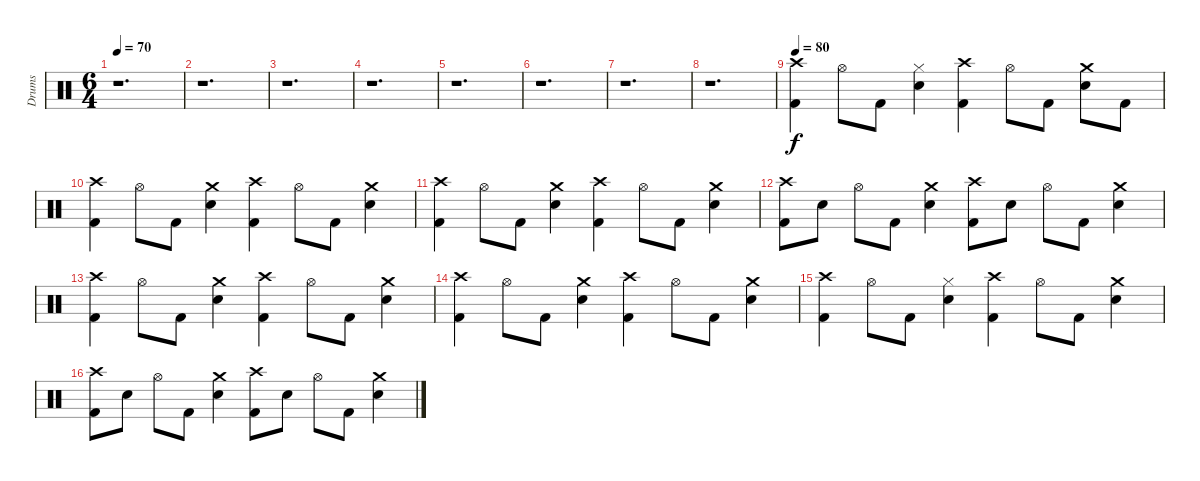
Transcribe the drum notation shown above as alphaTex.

\track ("Drums" "Drums") {instrument percussion}
\staff {score}
\articulation defaults
\ts (6 4)
\tempo 70
\clef neutral
\ks c
r.1{d dy f} |
r.1{d} |
r.1{d} |
r.1{d} |
r.1{d} |
r.1{d} |
r.1{d} |
r.1{d} |
\tempo 80
("Crash high (hit)" "Kick (hit) 2").4 "Hi-Hat (open)".8 "Kick (hit) 2".8 ("Hi-Hat (closed)" "Electric Snare (hit)").4 ("Crash high (hit)" "Kick (hit) 2").4 "Hi-Hat (open)".8 "Kick (hit) 2".8 ("Crash medium (hit)" "Electric Snare (hit)").8 "Kick (hit) 2".8 |
("Crash high (hit)" "Kick (hit) 2").4 "Hi-Hat (open)".8 "Kick (hit) 2".8 ("Crash medium (hit)" "Electric Snare (hit)").4 ("Crash high (hit)" "Kick (hit) 2").4 "Hi-Hat (open)".8 "Kick (hit) 2".8 ("Crash medium (hit)" "Electric Snare (hit)").4 |
("Crash high (hit)" "Kick (hit) 2").4 "Hi-Hat (open)".8 "Kick (hit) 2".8 ("Crash medium (hit)" "Electric Snare (hit)").4 ("Crash high (hit)" "Kick (hit) 2").4 "Hi-Hat (open)".8 "Kick (hit) 2".8 ("Crash medium (hit)" "Electric Snare (hit)").4 |
("Crash high (hit)" "Kick (hit) 2").8 "Electric Snare (hit)".8 "Hi-Hat (open)".8 "Kick (hit) 2".8 ("Crash medium (hit)" "Electric Snare (hit)").4 ("Crash high (hit)" "Kick (hit) 2").8 "Electric Snare (hit)".8 "Hi-Hat (open)".8 "Kick (hit) 2".8 ("Crash medium (hit)" "Electric Snare (hit)").4 |
("Crash high (hit)" "Kick (hit) 2").4 "Hi-Hat (open)".8 "Kick (hit) 2".8 ("Crash medium (hit)" "Electric Snare (hit)").4 ("Crash high (hit)" "Kick (hit) 2").4 "Hi-Hat (open)".8 "Kick (hit) 2".8 ("Crash medium (hit)" "Electric Snare (hit)").4 |
("Crash high (hit)" "Kick (hit) 2").4 "Hi-Hat (open)".8 "Kick (hit) 2".8 ("Crash medium (hit)" "Electric Snare (hit)").4 ("Crash high (hit)" "Kick (hit) 2").4 "Hi-Hat (open)".8 "Kick (hit) 2".8 ("Crash medium (hit)" "Electric Snare (hit)").4 |
("Crash high (hit)" "Kick (hit) 2").4 "Hi-Hat (open)".8 "Kick (hit) 2".8 ("Hi-Hat (closed)" "Electric Snare (hit)").4 ("Crash high (hit)" "Kick (hit) 2").4 "Hi-Hat (open)".8 "Kick (hit) 2".8 ("Crash medium (hit)" "Electric Snare (hit)").4 |
("Crash high (hit)" "Kick (hit) 2").8 "Electric Snare (hit)".8 "Hi-Hat (open)".8 "Kick (hit) 2".8 ("Crash medium (hit)" "Electric Snare (hit)").4 ("Crash high (hit)" "Kick (hit) 2").8 "Electric Snare (hit)".8 "Hi-Hat (open)".8 "Kick (hit) 2".8 ("Crash medium (hit)" "Electric Snare (hit)").4
